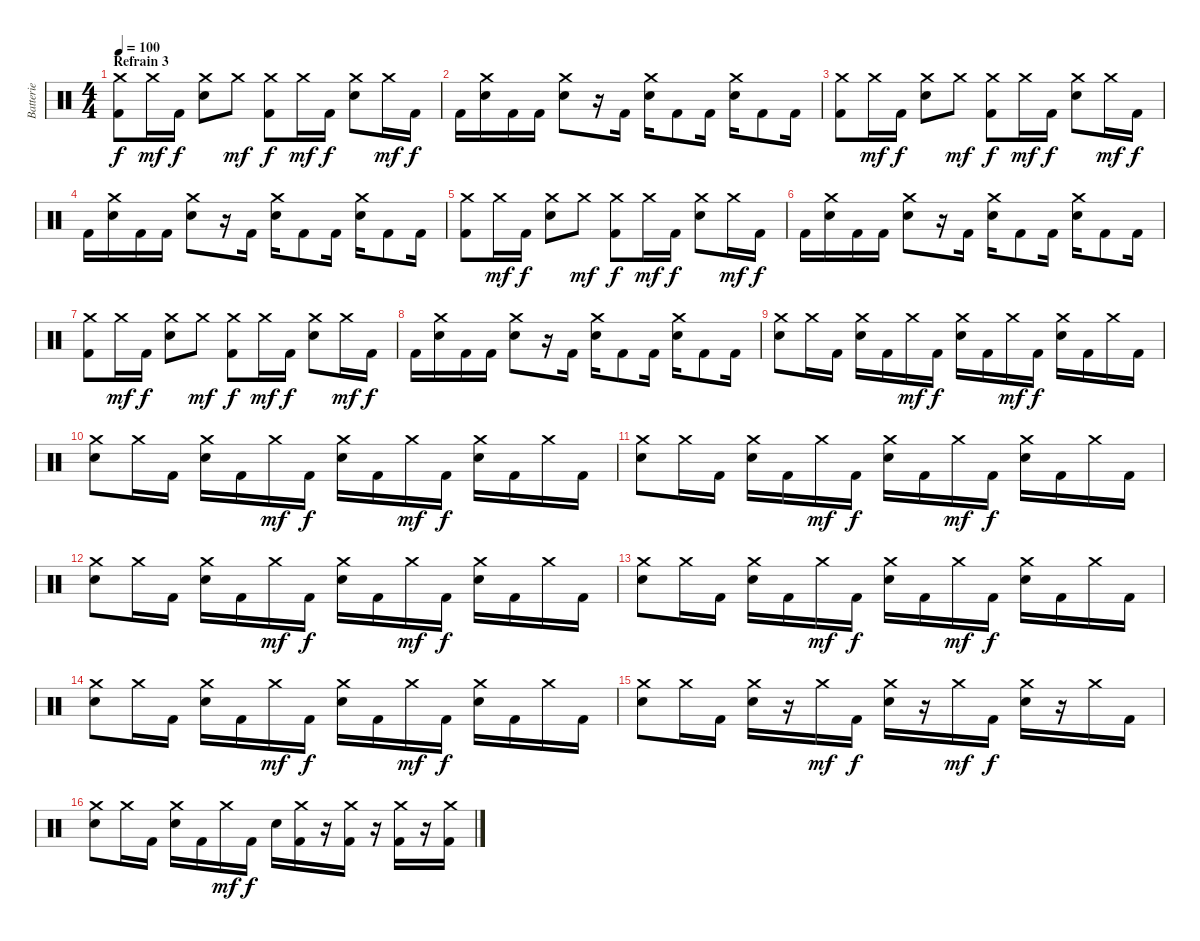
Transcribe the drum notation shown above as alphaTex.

\track ("Batterie" "Batterie") {instrument percussion}
\staff {score}
\articulation defaults
\ts (4 4)
\section ("" "Refrain 3")
\tempo 100
\clef neutral
\ks c
("Crash medium (hit)" "Kick (hit) 2").8{dy f} "Crash medium (hit)".16{dy mf} "Kick (hit) 2".16{dy f} ("Crash medium (hit)" "Electric Snare (hit)").8 "Crash medium (hit)".8{dy mf} ("Crash medium (hit)" "Kick (hit) 2").8{dy f} "Crash medium (hit)".16{dy mf} "Kick (hit) 2".16{dy f} ("Crash medium (hit)" "Electric Snare (hit)").8 "Crash medium (hit)".16{dy mf} "Kick (hit) 2".16{dy f} |
"Kick (hit) 2".16 ("Crash medium (hit)" "Electric Snare (hit)").16 "Kick (hit) 2".16 "Kick (hit) 2".16 ("Crash medium (hit)" "Electric Snare (hit)").8 r.16 "Kick (hit) 2".16 ("Crash medium (hit)" "Electric Snare (hit)").16 "Kick (hit) 2".8 "Kick (hit) 2".16 ("Crash medium (hit)" "Electric Snare (hit)").16 "Kick (hit) 2".8 "Kick (hit) 2".16 |
("Crash medium (hit)" "Kick (hit) 2").8 "Crash medium (hit)".16{dy mf} "Kick (hit) 2".16{dy f} ("Crash medium (hit)" "Electric Snare (hit)").8 "Crash medium (hit)".8{dy mf} ("Crash medium (hit)" "Kick (hit) 2").8{dy f} "Crash medium (hit)".16{dy mf} "Kick (hit) 2".16{dy f} ("Crash medium (hit)" "Electric Snare (hit)").8 "Crash medium (hit)".16{dy mf} "Kick (hit) 2".16{dy f} |
"Kick (hit) 2".16 ("Crash medium (hit)" "Electric Snare (hit)").16 "Kick (hit) 2".16 "Kick (hit) 2".16 ("Crash medium (hit)" "Electric Snare (hit)").8 r.16 "Kick (hit) 2".16 ("Crash medium (hit)" "Electric Snare (hit)").16 "Kick (hit) 2".8 "Kick (hit) 2".16 ("Crash medium (hit)" "Electric Snare (hit)").16 "Kick (hit) 2".8 "Kick (hit) 2".16 |
("Crash medium (hit)" "Kick (hit) 2").8 "Crash medium (hit)".16{dy mf} "Kick (hit) 2".16{dy f} ("Crash medium (hit)" "Electric Snare (hit)").8 "Crash medium (hit)".8{dy mf} ("Crash medium (hit)" "Kick (hit) 2").8{dy f} "Crash medium (hit)".16{dy mf} "Kick (hit) 2".16{dy f} ("Crash medium (hit)" "Electric Snare (hit)").8 "Crash medium (hit)".16{dy mf} "Kick (hit) 2".16{dy f} |
"Kick (hit) 2".16 ("Crash medium (hit)" "Electric Snare (hit)").16 "Kick (hit) 2".16 "Kick (hit) 2".16 ("Crash medium (hit)" "Electric Snare (hit)").8 r.16 "Kick (hit) 2".16 ("Crash medium (hit)" "Electric Snare (hit)").16 "Kick (hit) 2".8 "Kick (hit) 2".16 ("Crash medium (hit)" "Electric Snare (hit)").16 "Kick (hit) 2".8 "Kick (hit) 2".16 |
("Crash medium (hit)" "Kick (hit) 2").8 "Crash medium (hit)".16{dy mf} "Kick (hit) 2".16{dy f} ("Crash medium (hit)" "Electric Snare (hit)").8 "Crash medium (hit)".8{dy mf} ("Crash medium (hit)" "Kick (hit) 2").8{dy f} "Crash medium (hit)".16{dy mf} "Kick (hit) 2".16{dy f} ("Crash medium (hit)" "Electric Snare (hit)").8 "Crash medium (hit)".16{dy mf} "Kick (hit) 2".16{dy f} |
"Kick (hit) 2".16 ("Crash medium (hit)" "Electric Snare (hit)").16 "Kick (hit) 2".16 "Kick (hit) 2".16 ("Crash medium (hit)" "Electric Snare (hit)").8 r.16 "Kick (hit) 2".16 ("Crash medium (hit)" "Electric Snare (hit)").16 "Kick (hit) 2".8 "Kick (hit) 2".16 ("Crash medium (hit)" "Electric Snare (hit)").16 "Kick (hit) 2".8 "Kick (hit) 2".16 |
("Crash medium (hit)" "Electric Snare (hit)").8 "Crash medium (hit)".16 "Kick (hit) 2".16 ("Crash medium (hit)" "Electric Snare (hit)").16 "Kick (hit) 2".16 "Crash medium (hit)".16{dy mf} "Kick (hit) 2".16{dy f} ("Crash medium (hit)" "Electric Snare (hit)").16 "Kick (hit) 2".16 "Crash medium (hit)".16{dy mf} "Kick (hit) 2".16{dy f} ("Crash medium (hit)" "Electric Snare (hit)").16 "Kick (hit) 2".16 "Crash medium (hit)".16 "Kick (hit) 2".16 |
("Crash medium (hit)" "Electric Snare (hit)").8 "Crash medium (hit)".16 "Kick (hit) 2".16 ("Crash medium (hit)" "Electric Snare (hit)").16 "Kick (hit) 2".16 "Crash medium (hit)".16{dy mf} "Kick (hit) 2".16{dy f} ("Crash medium (hit)" "Electric Snare (hit)").16 "Kick (hit) 2".16 "Crash medium (hit)".16{dy mf} "Kick (hit) 2".16{dy f} ("Crash medium (hit)" "Electric Snare (hit)").16 "Kick (hit) 2".16 "Crash medium (hit)".16 "Kick (hit) 2".16 |
("Crash medium (hit)" "Electric Snare (hit)").8 "Crash medium (hit)".16 "Kick (hit) 2".16 ("Crash medium (hit)" "Electric Snare (hit)").16 "Kick (hit) 2".16 "Crash medium (hit)".16{dy mf} "Kick (hit) 2".16{dy f} ("Crash medium (hit)" "Electric Snare (hit)").16 "Kick (hit) 2".16 "Crash medium (hit)".16{dy mf} "Kick (hit) 2".16{dy f} ("Crash medium (hit)" "Electric Snare (hit)").16 "Kick (hit) 2".16 "Crash medium (hit)".16 "Kick (hit) 2".16 |
("Crash medium (hit)" "Electric Snare (hit)").8 "Crash medium (hit)".16 "Kick (hit) 2".16 ("Crash medium (hit)" "Electric Snare (hit)").16 "Kick (hit) 2".16 "Crash medium (hit)".16{dy mf} "Kick (hit) 2".16{dy f} ("Crash medium (hit)" "Electric Snare (hit)").16 "Kick (hit) 2".16 "Crash medium (hit)".16{dy mf} "Kick (hit) 2".16{dy f} ("Crash medium (hit)" "Electric Snare (hit)").16 "Kick (hit) 2".16 "Crash medium (hit)".16 "Kick (hit) 2".16 |
("Crash medium (hit)" "Electric Snare (hit)").8 "Crash medium (hit)".16 "Kick (hit) 2".16 ("Crash medium (hit)" "Electric Snare (hit)").16 "Kick (hit) 2".16 "Crash medium (hit)".16{dy mf} "Kick (hit) 2".16{dy f} ("Crash medium (hit)" "Electric Snare (hit)").16 "Kick (hit) 2".16 "Crash medium (hit)".16{dy mf} "Kick (hit) 2".16{dy f} ("Crash medium (hit)" "Electric Snare (hit)").16 "Kick (hit) 2".16 "Crash medium (hit)".16 "Kick (hit) 2".16 |
("Crash medium (hit)" "Electric Snare (hit)").8 "Crash medium (hit)".16 "Kick (hit) 2".16 ("Crash medium (hit)" "Electric Snare (hit)").16 "Kick (hit) 2".16 "Crash medium (hit)".16{dy mf} "Kick (hit) 2".16{dy f} ("Crash medium (hit)" "Electric Snare (hit)").16 "Kick (hit) 2".16 "Crash medium (hit)".16{dy mf} "Kick (hit) 2".16{dy f} ("Crash medium (hit)" "Electric Snare (hit)").16 "Kick (hit) 2".16 "Crash medium (hit)".16 "Kick (hit) 2".16 |
("Crash medium (hit)" "Electric Snare (hit)").8 "Crash medium (hit)".16 "Kick (hit) 2".16 ("Crash medium (hit)" "Electric Snare (hit)").16 r.16 "Crash medium (hit)".16{dy mf} "Kick (hit) 2".16{dy f} ("Crash medium (hit)" "Electric Snare (hit)").16 r.16 "Crash medium (hit)".16{dy mf} "Kick (hit) 2".16{dy f} ("Crash medium (hit)" "Electric Snare (hit)").16 r.16 "Crash medium (hit)".16 "Kick (hit) 2".16 |
("Crash medium (hit)" "Electric Snare (hit)").8 "Crash medium (hit)".16 "Kick (hit) 2".16 ("Crash medium (hit)" "Electric Snare (hit)").16 "Kick (hit) 2".16 "Crash medium (hit)".16{dy mf} "Kick (hit) 2".16{dy f} "Electric Snare (hit)".16 ("Crash medium (hit)" "Kick (hit) 2").16 r.16 ("Crash medium (hit)" "Kick (hit) 2").16 r.16 ("Crash medium (hit)" "Kick (hit) 2").16 r.16 ("Crash medium (hit)" "Kick (hit) 2").16
